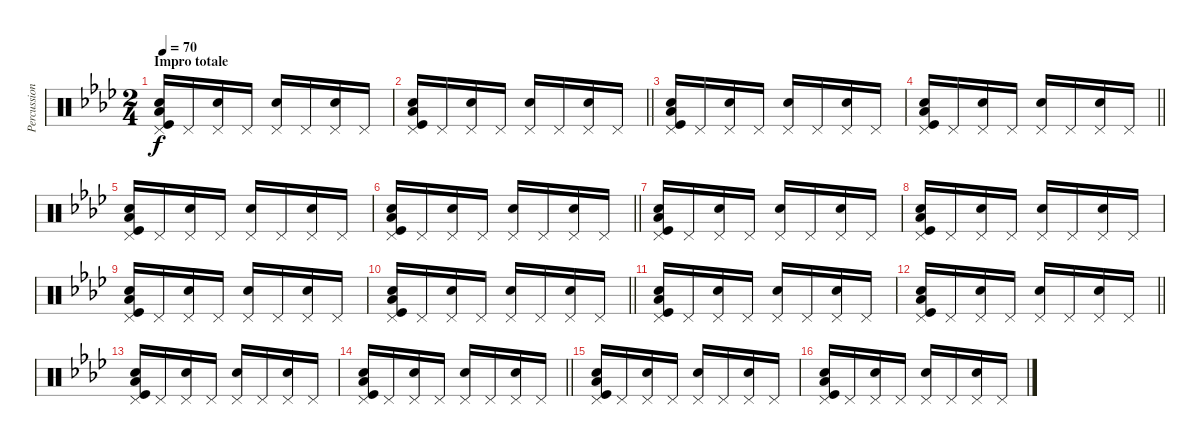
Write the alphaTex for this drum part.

\track ("Percussions" "Percussion") {instrument percussion}
\staff {score}
\articulation defaults
\ts (2 4)
\section ("" "Impro totale")
\tempo 70
\clef neutral
\ks fminor
("Electric Snare (hit)" "Kick (hit)" "Pedal Hi-Hat (hit)" "Low Floor Tom (hit)").16{dy f} "Pedal Hi-Hat (hit)".16 ("Electric Snare (hit)" "Pedal Hi-Hat (hit)").16 "Pedal Hi-Hat (hit)".16 ("Electric Snare (hit)" "Pedal Hi-Hat (hit)").16 "Pedal Hi-Hat (hit)".16 ("Electric Snare (hit)" "Pedal Hi-Hat (hit)").16 "Pedal Hi-Hat (hit)".16 |
\barLineRight lightlight
("Electric Snare (hit)" "Kick (hit)" "Pedal Hi-Hat (hit)" "Low Floor Tom (hit)").16 "Pedal Hi-Hat (hit)".16 ("Electric Snare (hit)" "Pedal Hi-Hat (hit)").16 "Pedal Hi-Hat (hit)".16 ("Electric Snare (hit)" "Pedal Hi-Hat (hit)").16 "Pedal Hi-Hat (hit)".16 ("Electric Snare (hit)" "Pedal Hi-Hat (hit)").16 "Pedal Hi-Hat (hit)".16 |
("Electric Snare (hit)" "Kick (hit)" "Pedal Hi-Hat (hit)" "Low Floor Tom (hit)").16 "Pedal Hi-Hat (hit)".16 ("Electric Snare (hit)" "Pedal Hi-Hat (hit)").16 "Pedal Hi-Hat (hit)".16 ("Electric Snare (hit)" "Pedal Hi-Hat (hit)").16 "Pedal Hi-Hat (hit)".16 ("Electric Snare (hit)" "Pedal Hi-Hat (hit)").16 "Pedal Hi-Hat (hit)".16 |
\barLineRight lightlight
("Electric Snare (hit)" "Kick (hit)" "Pedal Hi-Hat (hit)" "Low Floor Tom (hit)").16 "Pedal Hi-Hat (hit)".16 ("Electric Snare (hit)" "Pedal Hi-Hat (hit)").16 "Pedal Hi-Hat (hit)".16 ("Electric Snare (hit)" "Pedal Hi-Hat (hit)").16 "Pedal Hi-Hat (hit)".16 ("Electric Snare (hit)" "Pedal Hi-Hat (hit)").16 "Pedal Hi-Hat (hit)".16 |
("Electric Snare (hit)" "Kick (hit)" "Pedal Hi-Hat (hit)" "Low Floor Tom (hit)").16 "Pedal Hi-Hat (hit)".16 ("Electric Snare (hit)" "Pedal Hi-Hat (hit)").16 "Pedal Hi-Hat (hit)".16 ("Electric Snare (hit)" "Pedal Hi-Hat (hit)").16 "Pedal Hi-Hat (hit)".16 ("Electric Snare (hit)" "Pedal Hi-Hat (hit)").16 "Pedal Hi-Hat (hit)".16 |
\barLineRight lightlight
("Electric Snare (hit)" "Kick (hit)" "Pedal Hi-Hat (hit)" "Low Floor Tom (hit)").16 "Pedal Hi-Hat (hit)".16 ("Electric Snare (hit)" "Pedal Hi-Hat (hit)").16 "Pedal Hi-Hat (hit)".16 ("Electric Snare (hit)" "Pedal Hi-Hat (hit)").16 "Pedal Hi-Hat (hit)".16 ("Electric Snare (hit)" "Pedal Hi-Hat (hit)").16 "Pedal Hi-Hat (hit)".16 |
("Electric Snare (hit)" "Kick (hit)" "Pedal Hi-Hat (hit)" "Low Floor Tom (hit)").16 "Pedal Hi-Hat (hit)".16 ("Electric Snare (hit)" "Pedal Hi-Hat (hit)").16 "Pedal Hi-Hat (hit)".16 ("Electric Snare (hit)" "Pedal Hi-Hat (hit)").16 "Pedal Hi-Hat (hit)".16 ("Electric Snare (hit)" "Pedal Hi-Hat (hit)").16 "Pedal Hi-Hat (hit)".16 |
("Electric Snare (hit)" "Kick (hit)" "Pedal Hi-Hat (hit)" "Low Floor Tom (hit)").16 "Pedal Hi-Hat (hit)".16 ("Electric Snare (hit)" "Pedal Hi-Hat (hit)").16 "Pedal Hi-Hat (hit)".16 ("Electric Snare (hit)" "Pedal Hi-Hat (hit)").16 "Pedal Hi-Hat (hit)".16 ("Electric Snare (hit)" "Pedal Hi-Hat (hit)").16 "Pedal Hi-Hat (hit)".16 |
("Electric Snare (hit)" "Kick (hit)" "Pedal Hi-Hat (hit)" "Low Floor Tom (hit)").16 "Pedal Hi-Hat (hit)".16 ("Electric Snare (hit)" "Pedal Hi-Hat (hit)").16 "Pedal Hi-Hat (hit)".16 ("Electric Snare (hit)" "Pedal Hi-Hat (hit)").16 "Pedal Hi-Hat (hit)".16 ("Electric Snare (hit)" "Pedal Hi-Hat (hit)").16 "Pedal Hi-Hat (hit)".16 |
\barLineRight lightlight
("Electric Snare (hit)" "Kick (hit)" "Pedal Hi-Hat (hit)" "Low Floor Tom (hit)").16 "Pedal Hi-Hat (hit)".16 ("Electric Snare (hit)" "Pedal Hi-Hat (hit)").16 "Pedal Hi-Hat (hit)".16 ("Electric Snare (hit)" "Pedal Hi-Hat (hit)").16 "Pedal Hi-Hat (hit)".16 ("Electric Snare (hit)" "Pedal Hi-Hat (hit)").16 "Pedal Hi-Hat (hit)".16 |
("Electric Snare (hit)" "Kick (hit)" "Pedal Hi-Hat (hit)" "Low Floor Tom (hit)").16 "Pedal Hi-Hat (hit)".16 ("Electric Snare (hit)" "Pedal Hi-Hat (hit)").16 "Pedal Hi-Hat (hit)".16 ("Electric Snare (hit)" "Pedal Hi-Hat (hit)").16 "Pedal Hi-Hat (hit)".16 ("Electric Snare (hit)" "Pedal Hi-Hat (hit)").16 "Pedal Hi-Hat (hit)".16 |
\barLineRight lightlight
("Electric Snare (hit)" "Kick (hit)" "Pedal Hi-Hat (hit)" "Low Floor Tom (hit)").16 "Pedal Hi-Hat (hit)".16 ("Electric Snare (hit)" "Pedal Hi-Hat (hit)").16 "Pedal Hi-Hat (hit)".16 ("Electric Snare (hit)" "Pedal Hi-Hat (hit)").16 "Pedal Hi-Hat (hit)".16 ("Electric Snare (hit)" "Pedal Hi-Hat (hit)").16 "Pedal Hi-Hat (hit)".16 |
("Electric Snare (hit)" "Kick (hit)" "Pedal Hi-Hat (hit)" "Low Floor Tom (hit)").16 "Pedal Hi-Hat (hit)".16 ("Electric Snare (hit)" "Pedal Hi-Hat (hit)").16 "Pedal Hi-Hat (hit)".16 ("Electric Snare (hit)" "Pedal Hi-Hat (hit)").16 "Pedal Hi-Hat (hit)".16 ("Electric Snare (hit)" "Pedal Hi-Hat (hit)").16 "Pedal Hi-Hat (hit)".16 |
\barLineRight lightlight
("Electric Snare (hit)" "Kick (hit)" "Pedal Hi-Hat (hit)" "Low Floor Tom (hit)").16 "Pedal Hi-Hat (hit)".16 ("Electric Snare (hit)" "Pedal Hi-Hat (hit)").16 "Pedal Hi-Hat (hit)".16 ("Electric Snare (hit)" "Pedal Hi-Hat (hit)").16 "Pedal Hi-Hat (hit)".16 ("Electric Snare (hit)" "Pedal Hi-Hat (hit)").16 "Pedal Hi-Hat (hit)".16 |
("Electric Snare (hit)" "Kick (hit)" "Pedal Hi-Hat (hit)" "Low Floor Tom (hit)").16 "Pedal Hi-Hat (hit)".16 ("Electric Snare (hit)" "Pedal Hi-Hat (hit)").16 "Pedal Hi-Hat (hit)".16 ("Electric Snare (hit)" "Pedal Hi-Hat (hit)").16 "Pedal Hi-Hat (hit)".16 ("Electric Snare (hit)" "Pedal Hi-Hat (hit)").16 "Pedal Hi-Hat (hit)".16 |
("Electric Snare (hit)" "Kick (hit)" "Pedal Hi-Hat (hit)" "Low Floor Tom (hit)").16 "Pedal Hi-Hat (hit)".16 ("Electric Snare (hit)" "Pedal Hi-Hat (hit)").16 "Pedal Hi-Hat (hit)".16 ("Electric Snare (hit)" "Pedal Hi-Hat (hit)").16 "Pedal Hi-Hat (hit)".16 ("Electric Snare (hit)" "Pedal Hi-Hat (hit)").16 "Pedal Hi-Hat (hit)".16
